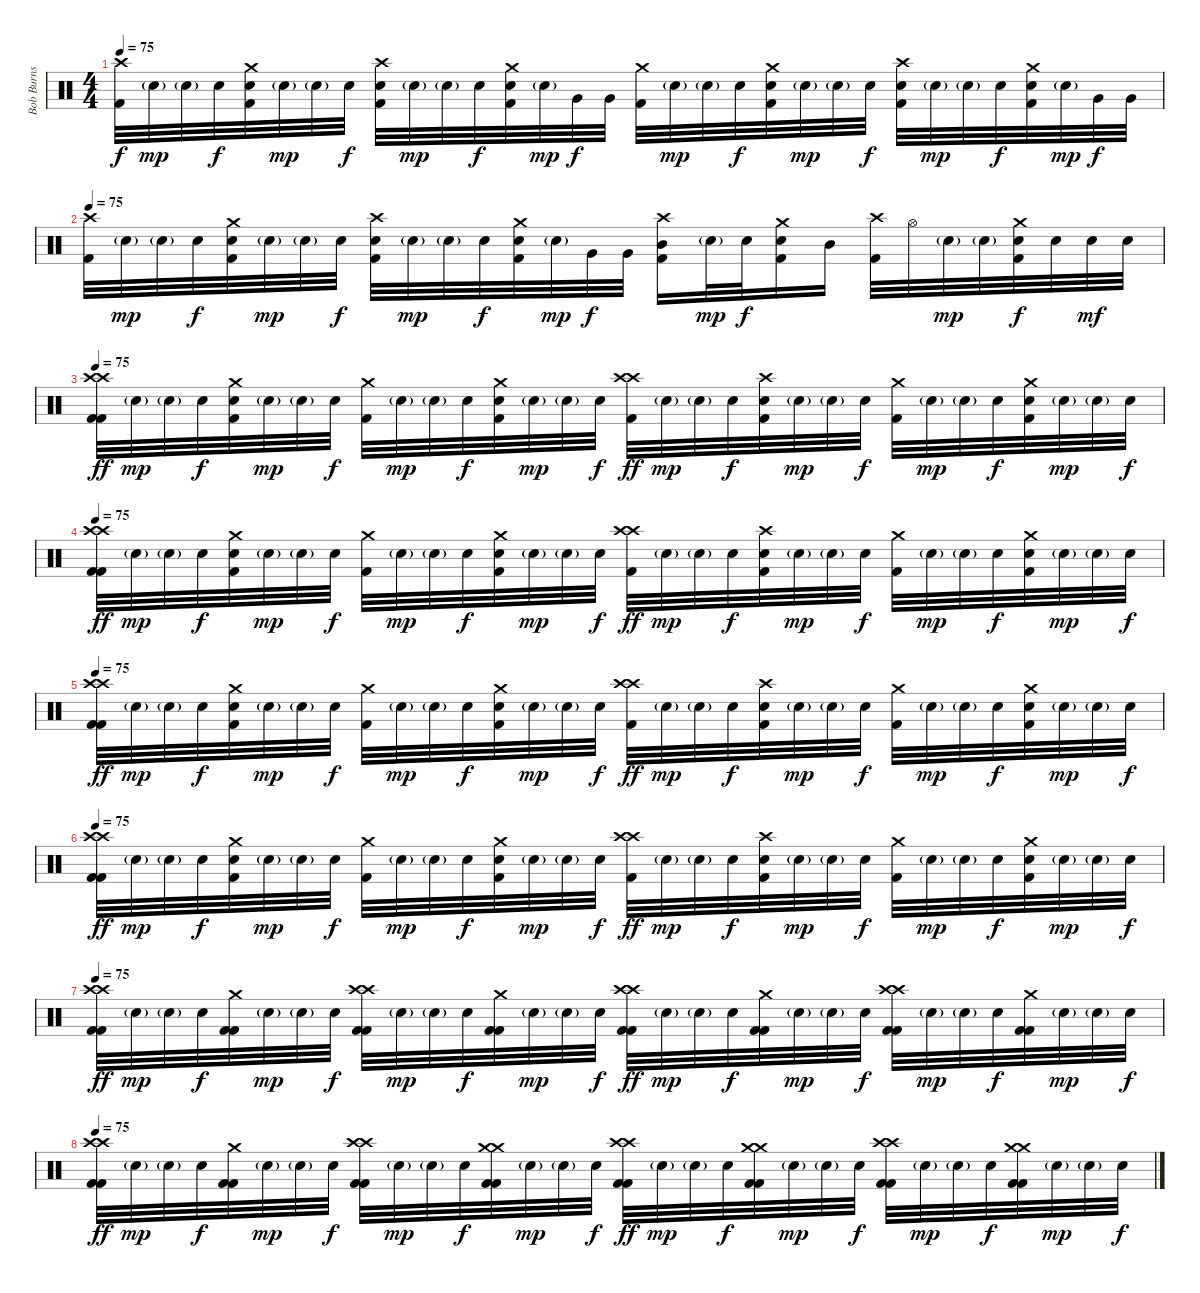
\track ("Bob Burns (drums and percussion)" "Bob Burns ") {instrument percussion}
\staff {score}
\articulation defaults
\ts (4 4)
\tempo 75
\clef neutral
\ks c
("Crash high (hit)" "Kick (hit) 2").32{dy f} "Electric Snare (hit)"{g}.32{dy mp} "Electric Snare (hit)"{g}.32 "Electric Snare (hit)".32{dy f} ("Crash medium (hit)" "Electric Snare (hit)" "Kick (hit) 2").32 "Electric Snare (hit)"{g}.32{dy mp} "Electric Snare (hit)"{g}.32 "Electric Snare (hit)".32{dy f} ("Crash high (hit)" "Electric Snare (hit)" "Kick (hit) 2").32 "Electric Snare (hit)"{g}.32{dy mp} "Electric Snare (hit)"{g}.32 "Electric Snare (hit)".32{dy f} ("Crash medium (hit)" "Electric Snare (hit)" "Kick (hit) 2").32 "Electric Snare (hit)"{g}.32{dy mp} "Very Low Tom (hit)".32{dy f} "Very Low Tom (hit)".32 ("Crash medium (hit)" "Kick (hit) 2").32 "Electric Snare (hit)"{g}.32{dy mp} "Electric Snare (hit)"{g}.32 "Electric Snare (hit)".32{dy f} ("Crash medium (hit)" "Electric Snare (hit)" "Kick (hit) 2").32 "Electric Snare (hit)"{g}.32{dy mp} "Electric Snare (hit)"{g}.32 "Electric Snare (hit)".32{dy f} ("Crash high (hit)" "Electric Snare (hit)" "Kick (hit) 2").32 "Electric Snare (hit)"{g}.32{dy mp} "Electric Snare (hit)"{g}.32 "Electric Snare (hit)".32{dy f} ("Crash medium (hit)" "Electric Snare (hit)" "Kick (hit) 2").32 "Electric Snare (hit)"{g}.32{dy mp} "Very Low Tom (hit)".32{dy f} "Very Low Tom (hit)".32 |
\tempo 75
("Crash high (hit)" "Kick (hit) 2").32 "Electric Snare (hit)"{g}.32{dy mp} "Electric Snare (hit)"{g}.32 "Electric Snare (hit)".32{dy f} ("Crash medium (hit)" "Electric Snare (hit)" "Kick (hit) 2").32 "Electric Snare (hit)"{g}.32{dy mp} "Electric Snare (hit)"{g}.32 "Electric Snare (hit)".32{dy f} ("Crash high (hit)" "Electric Snare (hit)" "Kick (hit) 2").32 "Electric Snare (hit)"{g}.32{dy mp} "Electric Snare (hit)"{g}.32 "Electric Snare (hit)".32{dy f} ("Crash medium (hit)" "Electric Snare (hit)" "Kick (hit) 2").32 "Electric Snare (hit)"{g}.32{dy mp} "Very Low Tom (hit)".32{dy f} "Very Low Tom (hit)".32 ("Crash high (hit)" "Mid Tom (hit)" "Kick (hit) 2").16 "Electric Snare (hit)"{g}.32{dy mp} "Electric Snare (hit)".32{dy f} ("Crash medium (hit)" "Electric Snare (hit)" "Kick (hit) 2").16 "Mid Tom (hit)".16 ("Crash high (hit)" "Kick (hit) 2").32 "Hi-Hat (open)".32 "Electric Snare (hit)"{g}.32{dy mp} "Electric Snare (hit)"{g}.32 ("Crash medium (hit)" "Electric Snare (hit)" "Kick (hit) 2").32{dy f} "Electric Snare (hit)".32 "Electric Snare (hit)".32{dy mf} "Electric Snare (hit)".32 |
\tempo 75
("Crash high (hit)" "Crash high (hit)" "Kick (hit) 2" "Kick (hit) 2").32{dy ff} "Electric Snare (hit)"{g}.32{dy mp} "Electric Snare (hit)"{g}.32 "Electric Snare (hit)".32{dy f} ("Crash medium (hit)" "Electric Snare (hit)" "Kick (hit) 2").32 "Electric Snare (hit)"{g}.32{dy mp} "Electric Snare (hit)"{g}.32 "Electric Snare (hit)".32{dy f} ("Crash medium (hit)" "Kick (hit) 2").32 "Electric Snare (hit)"{g}.32{dy mp} "Electric Snare (hit)"{g}.32 "Electric Snare (hit)".32{dy f} ("Crash medium (hit)" "Electric Snare (hit)" "Kick (hit) 2").32 "Electric Snare (hit)"{g}.32{dy mp} "Electric Snare (hit)"{g}.32 "Electric Snare (hit)".32{dy f} ("Crash high (hit)" "Crash high (hit)" "Kick (hit) 2").32{dy ff} "Electric Snare (hit)"{g}.32{dy mp} "Electric Snare (hit)"{g}.32 "Electric Snare (hit)".32{dy f} ("Crash high (hit)" "Electric Snare (hit)" "Kick (hit) 2").32 "Electric Snare (hit)"{g}.32{dy mp} "Electric Snare (hit)"{g}.32 "Electric Snare (hit)".32{dy f} ("Crash medium (hit)" "Kick (hit) 2").32 "Electric Snare (hit)"{g}.32{dy mp} "Electric Snare (hit)"{g}.32 "Electric Snare (hit)".32{dy f} ("Crash medium (hit)" "Electric Snare (hit)" "Kick (hit) 2").32 "Electric Snare (hit)"{g}.32{dy mp} "Electric Snare (hit)"{g}.32 "Electric Snare (hit)".32{dy f} |
\tempo 75
("Crash high (hit)" "Crash high (hit)" "Kick (hit) 2" "Kick (hit) 2").32{dy ff} "Electric Snare (hit)"{g}.32{dy mp} "Electric Snare (hit)"{g}.32 "Electric Snare (hit)".32{dy f} ("Crash medium (hit)" "Electric Snare (hit)" "Kick (hit) 2").32 "Electric Snare (hit)"{g}.32{dy mp} "Electric Snare (hit)"{g}.32 "Electric Snare (hit)".32{dy f} ("Crash medium (hit)" "Kick (hit) 2").32 "Electric Snare (hit)"{g}.32{dy mp} "Electric Snare (hit)"{g}.32 "Electric Snare (hit)".32{dy f} ("Crash medium (hit)" "Electric Snare (hit)" "Kick (hit) 2").32 "Electric Snare (hit)"{g}.32{dy mp} "Electric Snare (hit)"{g}.32 "Electric Snare (hit)".32{dy f} ("Crash high (hit)" "Crash high (hit)" "Kick (hit) 2").32{dy ff} "Electric Snare (hit)"{g}.32{dy mp} "Electric Snare (hit)"{g}.32 "Electric Snare (hit)".32{dy f} ("Crash high (hit)" "Electric Snare (hit)" "Kick (hit) 2").32 "Electric Snare (hit)"{g}.32{dy mp} "Electric Snare (hit)"{g}.32 "Electric Snare (hit)".32{dy f} ("Crash medium (hit)" "Kick (hit) 2").32 "Electric Snare (hit)"{g}.32{dy mp} "Electric Snare (hit)"{g}.32 "Electric Snare (hit)".32{dy f} ("Crash medium (hit)" "Electric Snare (hit)" "Kick (hit) 2").32 "Electric Snare (hit)"{g}.32{dy mp} "Electric Snare (hit)"{g}.32 "Electric Snare (hit)".32{dy f} |
\tempo 75
("Crash high (hit)" "Crash high (hit)" "Kick (hit) 2" "Kick (hit) 2").32{dy ff} "Electric Snare (hit)"{g}.32{dy mp} "Electric Snare (hit)"{g}.32 "Electric Snare (hit)".32{dy f} ("Crash medium (hit)" "Electric Snare (hit)" "Kick (hit) 2").32 "Electric Snare (hit)"{g}.32{dy mp} "Electric Snare (hit)"{g}.32 "Electric Snare (hit)".32{dy f} ("Crash medium (hit)" "Kick (hit) 2").32 "Electric Snare (hit)"{g}.32{dy mp} "Electric Snare (hit)"{g}.32 "Electric Snare (hit)".32{dy f} ("Crash medium (hit)" "Electric Snare (hit)" "Kick (hit) 2").32 "Electric Snare (hit)"{g}.32{dy mp} "Electric Snare (hit)"{g}.32 "Electric Snare (hit)".32{dy f} ("Crash high (hit)" "Crash high (hit)" "Kick (hit) 2").32{dy ff} "Electric Snare (hit)"{g}.32{dy mp} "Electric Snare (hit)"{g}.32 "Electric Snare (hit)".32{dy f} ("Crash high (hit)" "Electric Snare (hit)" "Kick (hit) 2").32 "Electric Snare (hit)"{g}.32{dy mp} "Electric Snare (hit)"{g}.32 "Electric Snare (hit)".32{dy f} ("Crash medium (hit)" "Kick (hit) 2").32 "Electric Snare (hit)"{g}.32{dy mp} "Electric Snare (hit)"{g}.32 "Electric Snare (hit)".32{dy f} ("Crash medium (hit)" "Electric Snare (hit)" "Kick (hit) 2").32 "Electric Snare (hit)"{g}.32{dy mp} "Electric Snare (hit)"{g}.32 "Electric Snare (hit)".32{dy f} |
\tempo 75
("Crash high (hit)" "Crash high (hit)" "Kick (hit) 2" "Kick (hit) 2").32{dy ff} "Electric Snare (hit)"{g}.32{dy mp} "Electric Snare (hit)"{g}.32 "Electric Snare (hit)".32{dy f} ("Crash medium (hit)" "Electric Snare (hit)" "Kick (hit) 2").32 "Electric Snare (hit)"{g}.32{dy mp} "Electric Snare (hit)"{g}.32 "Electric Snare (hit)".32{dy f} ("Crash medium (hit)" "Kick (hit) 2").32 "Electric Snare (hit)"{g}.32{dy mp} "Electric Snare (hit)"{g}.32 "Electric Snare (hit)".32{dy f} ("Crash medium (hit)" "Electric Snare (hit)" "Kick (hit) 2").32 "Electric Snare (hit)"{g}.32{dy mp} "Electric Snare (hit)"{g}.32 "Electric Snare (hit)".32{dy f} ("Crash high (hit)" "Crash high (hit)" "Kick (hit) 2").32{dy ff} "Electric Snare (hit)"{g}.32{dy mp} "Electric Snare (hit)"{g}.32 "Electric Snare (hit)".32{dy f} ("Crash high (hit)" "Electric Snare (hit)" "Kick (hit) 2").32 "Electric Snare (hit)"{g}.32{dy mp} "Electric Snare (hit)"{g}.32 "Electric Snare (hit)".32{dy f} ("Crash medium (hit)" "Kick (hit) 2").32 "Electric Snare (hit)"{g}.32{dy mp} "Electric Snare (hit)"{g}.32 "Electric Snare (hit)".32{dy f} ("Crash medium (hit)" "Electric Snare (hit)" "Kick (hit) 2").32 "Electric Snare (hit)"{g}.32{dy mp} "Electric Snare (hit)"{g}.32 "Electric Snare (hit)".32{dy f} |
\tempo 75
("Crash high (hit)" "Crash high (hit)" "Kick (hit) 2" "Kick (hit) 2").32{dy ff} "Electric Snare (hit)"{g}.32{dy mp} "Electric Snare (hit)"{g}.32 "Electric Snare (hit)".32{dy f} ("Crash medium (hit)" "Kick (hit) 2" "Kick (hit) 2").32 "Electric Snare (hit)"{g}.32{dy mp} "Electric Snare (hit)"{g}.32 "Electric Snare (hit)".32{dy f} ("Crash high (hit)" "Crash high (hit)" "Kick (hit) 2" "Kick (hit) 2").32 "Electric Snare (hit)"{g}.32{dy mp} "Electric Snare (hit)"{g}.32 "Electric Snare (hit)".32{dy f} ("Crash medium (hit)" "Kick (hit) 2" "Kick (hit) 2").32 "Electric Snare (hit)"{g}.32{dy mp} "Electric Snare (hit)"{g}.32 "Electric Snare (hit)".32{dy f} ("Crash high (hit)" "Crash high (hit)" "Kick (hit) 2" "Kick (hit) 2").32{dy ff} "Electric Snare (hit)"{g}.32{dy mp} "Electric Snare (hit)"{g}.32 "Electric Snare (hit)".32{dy f} ("Crash medium (hit)" "Kick (hit) 2" "Kick (hit) 2").32 "Electric Snare (hit)"{g}.32{dy mp} "Electric Snare (hit)"{g}.32 "Electric Snare (hit)".32{dy f} ("Crash high (hit)" "Crash high (hit)" "Kick (hit) 2" "Kick (hit) 2").32 "Electric Snare (hit)"{g}.32{dy mp} "Electric Snare (hit)"{g}.32 "Electric Snare (hit)".32{dy f} ("Crash medium (hit)" "Kick (hit) 2" "Kick (hit) 2").32 "Electric Snare (hit)"{g}.32{dy mp} "Electric Snare (hit)"{g}.32 "Electric Snare (hit)".32{dy f} |
\tempo 75
("Crash high (hit)" "Crash high (hit)" "Kick (hit) 2" "Kick (hit) 2").32{dy ff} "Electric Snare (hit)"{g}.32{dy mp} "Electric Snare (hit)"{g}.32 "Electric Snare (hit)".32{dy f} ("Crash medium (hit)" "Kick (hit) 2" "Kick (hit) 2").32 "Electric Snare (hit)"{g}.32{dy mp} "Electric Snare (hit)"{g}.32 "Electric Snare (hit)".32{dy f} ("Crash high (hit)" "Crash high (hit)" "Kick (hit) 2" "Kick (hit) 2").32 "Electric Snare (hit)"{g}.32{dy mp} "Electric Snare (hit)"{g}.32 "Electric Snare (hit)".32{dy f} ("Crash medium (hit)" "Crash medium (hit)" "Kick (hit) 2" "Kick (hit) 2").32 "Electric Snare (hit)"{g}.32{dy mp} "Electric Snare (hit)"{g}.32 "Electric Snare (hit)".32{dy f} ("Crash high (hit)" "Crash high (hit)" "Kick (hit) 2" "Kick (hit) 2").32{dy ff} "Electric Snare (hit)"{g}.32{dy mp} "Electric Snare (hit)"{g}.32 "Electric Snare (hit)".32{dy f} ("Crash medium (hit)" "Crash medium (hit)" "Kick (hit) 2" "Kick (hit) 2").32 "Electric Snare (hit)"{g}.32{dy mp} "Electric Snare (hit)"{g}.32 "Electric Snare (hit)".32{dy f} ("Crash high (hit)" "Crash high (hit)" "Kick (hit) 2" "Kick (hit) 2").32 "Electric Snare (hit)"{g}.32{dy mp} "Electric Snare (hit)"{g}.32 "Electric Snare (hit)".32{dy f} ("Crash medium (hit)" "Crash medium (hit)" "Kick (hit) 2" "Kick (hit) 2").32 "Electric Snare (hit)"{g}.32{dy mp} "Electric Snare (hit)"{g}.32 "Electric Snare (hit)".32{dy f}
